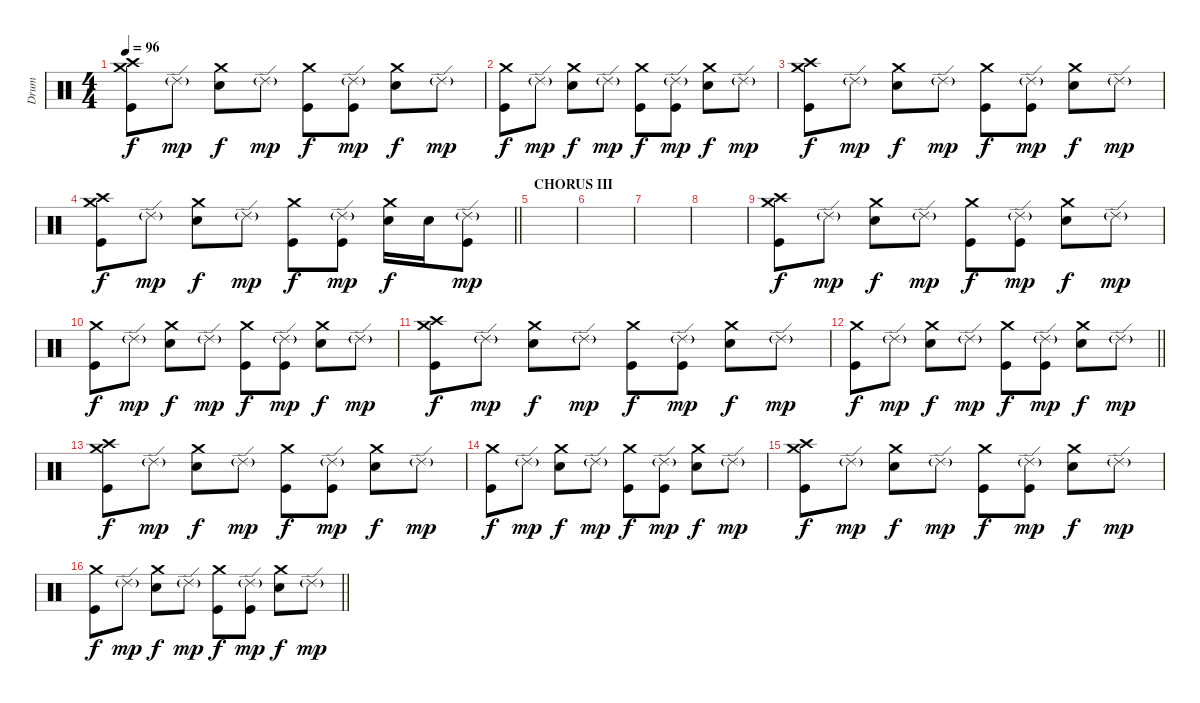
\track ("Drum" "Drum") {instrument percussion}
\staff {score}
\articulation defaults
\ts (4 4)
\tempo 96
\clef neutral
\ks c
("Crash high (hit)" "Crash medium (hit)" "Kick (hit)").8{dy f} "Ride (edge) 2"{g}.8{dy mp} ("Crash medium (hit)" "Electric Snare (hit)").8{dy f} "Ride (edge) 2"{g}.8{dy mp} ("Crash medium (hit)" "Kick (hit)").8{dy f} ("Ride (edge) 2"{g} "Kick (hit)").8{dy mp} ("Crash medium (hit)" "Electric Snare (hit)").8{dy f} "Ride (edge) 2"{g}.8{dy mp} |
("Crash medium (hit)" "Kick (hit)").8{dy f} "Ride (edge) 2"{g}.8{dy mp} ("Crash medium (hit)" "Electric Snare (hit)").8{dy f} "Ride (edge) 2"{g}.8{dy mp} ("Crash medium (hit)" "Kick (hit)").8{dy f} ("Ride (edge) 2"{g} "Kick (hit)").8{dy mp} ("Crash medium (hit)" "Electric Snare (hit)").8{dy f} "Ride (edge) 2"{g}.8{dy mp} |
("Crash high (hit)" "Crash medium (hit)" "Kick (hit)").8{dy f} "Ride (edge) 2"{g}.8{dy mp} ("Crash medium (hit)" "Electric Snare (hit)").8{dy f} "Ride (edge) 2"{g}.8{dy mp} ("Crash medium (hit)" "Kick (hit)").8{dy f} ("Ride (edge) 2"{g} "Kick (hit)").8{dy mp} ("Crash medium (hit)" "Electric Snare (hit)").8{dy f} "Ride (edge) 2"{g}.8{dy mp} |
\barLineRight lightlight
("Crash high (hit)" "Crash medium (hit)" "Kick (hit)").8{dy f} "Ride (edge) 2"{g}.8{dy mp} ("Crash medium (hit)" "Electric Snare (hit)").8{dy f} "Ride (edge) 2"{g}.8{dy mp} ("Crash medium (hit)" "Kick (hit)").8{dy f} ("Ride (edge) 2"{g} "Kick (hit)").8{dy mp} ("Crash medium (hit)" "Electric Snare (hit)").16{dy f} "Electric Snare (hit)".16 ("Ride (edge) 2"{g} "Kick (hit)").8{dy mp} |
\section ("" "CHORUS III")
|
|
|
|
("Crash high (hit)" "Crash medium (hit)" "Kick (hit)").8{dy f} "Ride (edge) 2"{g}.8{dy mp} ("Crash medium (hit)" "Electric Snare (hit)").8{dy f} "Ride (edge) 2"{g}.8{dy mp} ("Crash medium (hit)" "Kick (hit)").8{dy f} ("Ride (edge) 2"{g} "Kick (hit)").8{dy mp} ("Crash medium (hit)" "Electric Snare (hit)").8{dy f} "Ride (edge) 2"{g}.8{dy mp} |
("Crash medium (hit)" "Kick (hit)").8{dy f} "Ride (edge) 2"{g}.8{dy mp} ("Crash medium (hit)" "Electric Snare (hit)").8{dy f} "Ride (edge) 2"{g}.8{dy mp} ("Crash medium (hit)" "Kick (hit)").8{dy f} ("Ride (edge) 2"{g} "Kick (hit)").8{dy mp} ("Crash medium (hit)" "Electric Snare (hit)").8{dy f} "Ride (edge) 2"{g}.8{dy mp} |
("Crash high (hit)" "Crash medium (hit)" "Kick (hit)").8{dy f} "Ride (edge) 2"{g}.8{dy mp} ("Crash medium (hit)" "Electric Snare (hit)").8{dy f} "Ride (edge) 2"{g}.8{dy mp} ("Crash medium (hit)" "Kick (hit)").8{dy f} ("Ride (edge) 2"{g} "Kick (hit)").8{dy mp} ("Crash medium (hit)" "Electric Snare (hit)").8{dy f} "Ride (edge) 2"{g}.8{dy mp} |
\barLineRight lightlight
("Crash medium (hit)" "Kick (hit)").8{dy f} "Ride (edge) 2"{g}.8{dy mp} ("Crash medium (hit)" "Electric Snare (hit)").8{dy f} "Ride (edge) 2"{g}.8{dy mp} ("Crash medium (hit)" "Kick (hit)").8{dy f} ("Ride (edge) 2"{g} "Kick (hit)").8{dy mp} ("Crash medium (hit)" "Electric Snare (hit)").8{dy f} "Ride (edge) 2"{g}.8{dy mp} |
("Crash high (hit)" "Crash medium (hit)" "Kick (hit)").8{dy f} "Ride (edge) 2"{g}.8{dy mp} ("Crash medium (hit)" "Electric Snare (hit)").8{dy f} "Ride (edge) 2"{g}.8{dy mp} ("Crash medium (hit)" "Kick (hit)").8{dy f} ("Ride (edge) 2"{g} "Kick (hit)").8{dy mp} ("Crash medium (hit)" "Electric Snare (hit)").8{dy f} "Ride (edge) 2"{g}.8{dy mp} |
("Crash medium (hit)" "Kick (hit)").8{dy f} "Ride (edge) 2"{g}.8{dy mp} ("Crash medium (hit)" "Electric Snare (hit)").8{dy f} "Ride (edge) 2"{g}.8{dy mp} ("Crash medium (hit)" "Kick (hit)").8{dy f} ("Ride (edge) 2"{g} "Kick (hit)").8{dy mp} ("Crash medium (hit)" "Electric Snare (hit)").8{dy f} "Ride (edge) 2"{g}.8{dy mp} |
("Crash high (hit)" "Crash medium (hit)" "Kick (hit)").8{dy f} "Ride (edge) 2"{g}.8{dy mp} ("Crash medium (hit)" "Electric Snare (hit)").8{dy f} "Ride (edge) 2"{g}.8{dy mp} ("Crash medium (hit)" "Kick (hit)").8{dy f} ("Ride (edge) 2"{g} "Kick (hit)").8{dy mp} ("Crash medium (hit)" "Electric Snare (hit)").8{dy f} "Ride (edge) 2"{g}.8{dy mp} |
\barLineRight lightlight
("Crash medium (hit)" "Kick (hit)").8{dy f} "Ride (edge) 2"{g}.8{dy mp} ("Crash medium (hit)" "Electric Snare (hit)").8{dy f} "Ride (edge) 2"{g}.8{dy mp} ("Crash medium (hit)" "Kick (hit)").8{dy f} ("Ride (edge) 2"{g} "Kick (hit)").8{dy mp} ("Crash medium (hit)" "Electric Snare (hit)").8{dy f} "Ride (edge) 2"{g}.8{dy mp}
